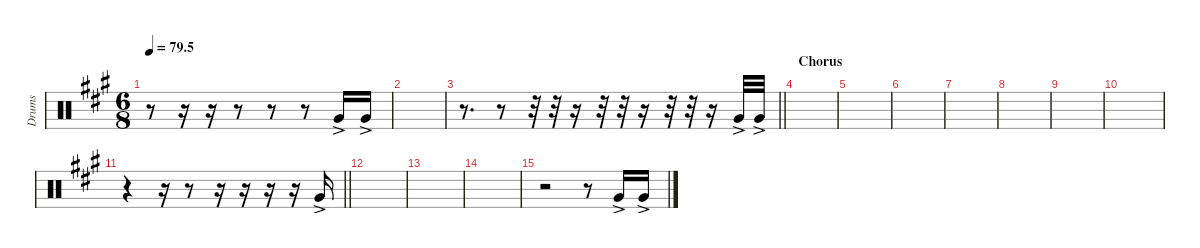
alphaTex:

\defaultSystemsLayout 4
\hideDynamics
\bracketExtendMode nobrackets
\otherSystemsTrackNameOrientation horizontal
\track ("Tom 04" "Drums") {instrument percussion}
\staff {score}
\articulation defaults
\ts (6 8)
\tempo
79.5
\accidentals auto
\clef neutral
\ottava regular
\simile none
\scale
0.333333
\ks a
r.8{dy f} r.16 r.16 r.8 r.8 r.8 "Very Low Tom (hit)"{ac acc forcenatural}.16 "Very Low Tom (hit)"{ac acc forcenatural}.16 |
\scale
0.333333 |
\scale
0.333333
\barLineRight lightlight
r.8{d} r.8 r.32 r.32 r.16 r.32 r.32 r.16 r.32 r.32 r.16 "Very Low Tom (hit)"{ac acc forcenatural}.32 "Very Low Tom (hit)"{ac acc forcenatural}.32 |
\section ("" "Chorus")
\scale
0.333333 |
\scale
0.333333 |
\scale
0.333333 |
\scale
0.333333 |
\scale
0.333333 |
\scale
0.333333 |
\scale
0.333333 |
\scale
0.333333
\barLineRight lightlight
r.4 r.16 r.8 r.16 r.16 r.16 r.16 "Very Low Tom (hit)"{ac acc forcenatural}.16 |
\scale
0.333333 |
\scale
0.333333 |
\scale
0.333333 |
\scale
0.333333 r.2 r.8 "Very Low Tom (hit)"{ac acc forcenatural}.16 "Very Low Tom (hit)"{ac acc forcenatural}.16 |
\scale
0.333333
